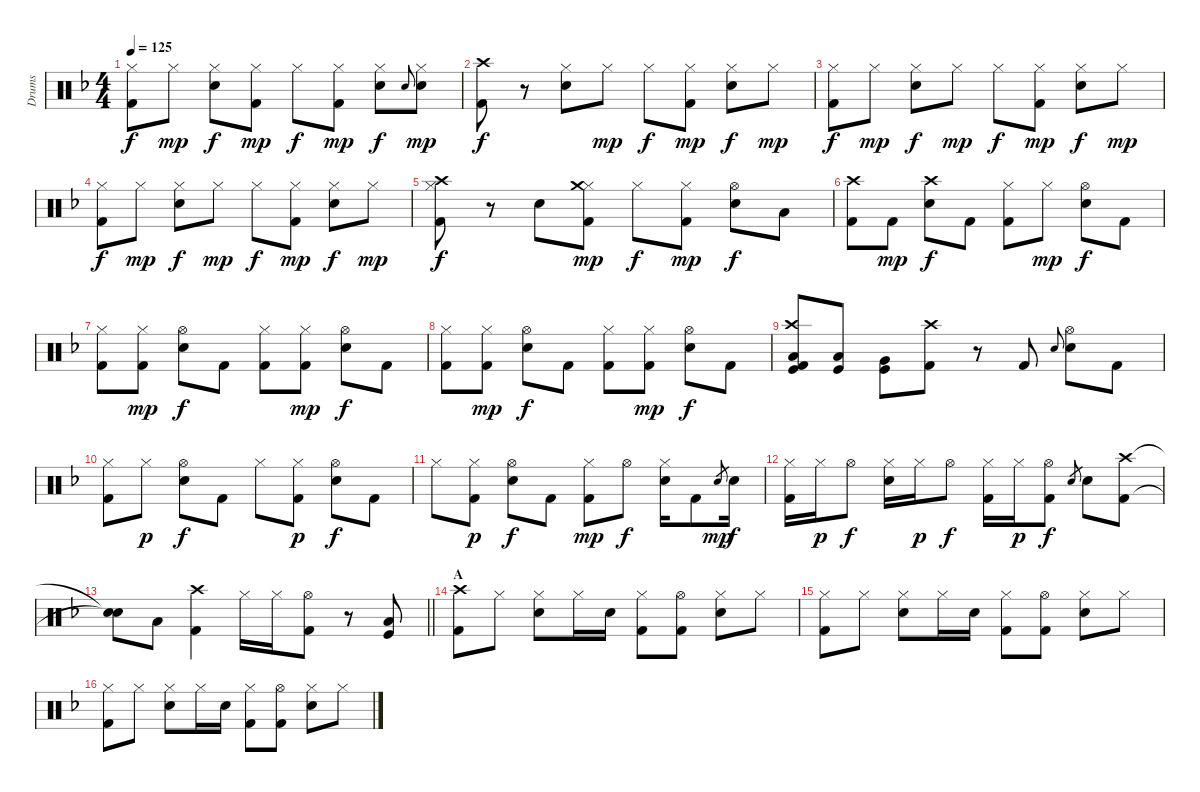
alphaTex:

\track ("Drums" "Drums") {instrument percussion}
\staff {score}
\articulation defaults
\ts (4 4)
\tempo 125
\clef neutral
\ks f
("Hi-Hat (closed)" "Kick (hit) 2").8{dy f} "Hi-Hat (closed)".8{dy mp} ("Hi-Hat (closed)" "Electric Snare (hit)").8{dy f} ("Hi-Hat (closed)" "Kick (hit) 2").8{dy mp} "Hi-Hat (closed)".8{dy f} ("Hi-Hat (closed)" "Kick (hit) 2").8{dy mp} ("Hi-Hat (closed)" "Electric Snare (hit)").8{dy f} "Electric Snare (hit)".8{gr onbeat} ("Hi-Hat (closed)" "Electric Snare (hit)").8{dy mp} |
("Crash high (hit)" "Kick (hit) 2").8{dy f} r.8 ("Hi-Hat (closed)" "Electric Snare (hit)").8 "Hi-Hat (closed)".8{dy mp} "Hi-Hat (closed)".8{dy f} ("Hi-Hat (closed)" "Kick (hit) 2").8{dy mp} ("Hi-Hat (closed)" "Electric Snare (hit)").8{dy f} "Hi-Hat (closed)".8{dy mp} |
("Hi-Hat (closed)" "Kick (hit) 2").8{dy f} "Hi-Hat (closed)".8{dy mp} ("Hi-Hat (closed)" "Electric Snare (hit)").8{dy f} "Hi-Hat (closed)".8{dy mp} "Hi-Hat (closed)".8{dy f} ("Hi-Hat (closed)" "Kick (hit) 2").8{dy mp} ("Hi-Hat (closed)" "Electric Snare (hit)").8{dy f} "Hi-Hat (closed)".8{dy mp} |
("Hi-Hat (closed)" "Kick (hit) 2").8{dy f} "Hi-Hat (closed)".8{dy mp} ("Hi-Hat (closed)" "Electric Snare (hit)").8{dy f} "Hi-Hat (closed)".8{dy mp} "Hi-Hat (closed)".8{dy f} ("Hi-Hat (closed)" "Kick (hit) 2").8{dy mp} ("Hi-Hat (closed)" "Electric Snare (hit)").8{dy f} "Hi-Hat (closed)".8{dy mp} |
("Hi-Hat (closed)" "Crash high (hit)" "Kick (hit) 2").8{dy f} r.8 "Electric Snare (hit)".8 ("Hi-Hat (closed)" "Crash medium (hit)" "Kick (hit) 2").8{dy mp} "Hi-Hat (closed)".8{dy f} ("Hi-Hat (closed)" "Kick (hit) 2").8{dy mp} ("Hi-Hat (open)" "Electric Snare (hit)").8{dy f} "Low Tom (hit)".8 |
("Crash high (hit)" "Kick (hit) 2").8 "Kick (hit) 2".8{dy mp} ("Crash high (hit)" "Electric Snare (hit)").8{dy f} "Kick (hit) 2".8 ("Hi-Hat (closed)" "Kick (hit) 2").8 "Hi-Hat (closed)".8{dy mp} ("Hi-Hat (open)" "Electric Snare (hit)").8{dy f} "Kick (hit) 2".8 |
("Hi-Hat (closed)" "Kick (hit) 2").8 ("Hi-Hat (closed)" "Kick (hit) 2").8{dy mp} ("Hi-Hat (open)" "Electric Snare (hit)").8{dy f} "Kick (hit) 2".8 ("Hi-Hat (closed)" "Kick (hit) 2").8 ("Hi-Hat (closed)" "Kick (hit) 2").8{dy mp} ("Hi-Hat (open)" "Electric Snare (hit)").8{dy f} "Kick (hit) 2".8 |
("Hi-Hat (closed)" "Kick (hit) 2").8 ("Hi-Hat (closed)" "Kick (hit) 2").8{dy mp} ("Hi-Hat (open)" "Electric Snare (hit)").8{dy f} "Kick (hit) 2".8 ("Hi-Hat (closed)" "Kick (hit) 2").8 ("Hi-Hat (closed)" "Kick (hit) 2").8{dy mp} ("Hi-Hat (open)" "Electric Snare (hit)").8{dy f} "Kick (hit) 2".8 |
("Crash high (hit)" "Low Tom (hit)" "Kick (hit)" "Kick (hit) 2").8 ("Low Tom (hit)" "Kick (hit)").8 ("Very Low Tom (hit)" "Kick (hit)").8 ("Crash high (hit)" "Kick (hit) 2").8 r.8 "Kick (hit) 2".8 "Electric Snare (hit)".8{gr onbeat} ("Hi-Hat (open)" "Electric Snare (hit)").8 "Kick (hit) 2".8 |
("Hi-Hat (closed)" "Kick (hit) 2").8 "Hi-Hat (closed)".8{dy p} ("Hi-Hat (open)" "Electric Snare (hit)").8{dy f} "Kick (hit) 2".8 "Hi-Hat (closed)".8 ("Hi-Hat (closed)" "Kick (hit) 2").8{dy p} ("Hi-Hat (open)" "Electric Snare (hit)").8{dy f} "Kick (hit) 2".8 |
"Hi-Hat (closed)".8 ("Hi-Hat (closed)" "Kick (hit) 2").8{dy p} ("Hi-Hat (open)" "Electric Snare (hit)").8{dy f} "Kick (hit) 2".8 ("Hi-Hat (closed)" "Kick (hit) 2").8{dy mp} "Hi-Hat (open)".8{dy f} ("Hi-Hat (closed)" "Electric Snare (hit)").16 "Kick (hit) 2".8 "Electric Snare (hit)".8{gr dy mp} "Electric Snare (hit)".16{dy f} |
("Hi-Hat (closed)" "Kick (hit) 2").16 "Hi-Hat (closed)".16{dy p} "Hi-Hat (open)".8{dy f} ("Hi-Hat (closed)" "Electric Snare (hit)").16 "Hi-Hat (closed)".16{dy p} "Hi-Hat (open)".8{dy f} ("Hi-Hat (closed)" "Kick (hit) 2").16 "Hi-Hat (closed)".16{dy p} ("Hi-Hat (open)" "Kick (hit) 2").8{dy f} "Electric Snare (hit)".8{gr} "Electric Snare (hit)".8 ("Crash high (hit)" "Kick (hit) 2").8 |
\barLineRight lightlight
("Snare (hit)"{t} "Snare (hit)"{t}).8 "Low Tom (hit)".8 ("Crash high (hit)" "Kick (hit) 2").4 "Hi-Hat (closed)".16 "Hi-Hat (closed)".16 ("Hi-Hat (open)" "Kick (hit) 2").8 r.8 ("Low Tom (hit)" "Kick (hit)").8 |
\section ("" "A")
("Crash high (hit)" "Kick (hit) 2").8 "Hi-Hat (closed)".8 ("Hi-Hat (closed)" "Electric Snare (hit)").8 "Hi-Hat (closed)".16 "Electric Snare (hit)".16 ("Hi-Hat (closed)" "Kick (hit) 2").8 ("Hi-Hat (open)" "Kick (hit) 2").8 ("Hi-Hat (closed)" "Electric Snare (hit)").8 "Hi-Hat (closed)".8 |
("Hi-Hat (closed)" "Kick (hit) 2").8 "Hi-Hat (closed)".8 ("Hi-Hat (closed)" "Electric Snare (hit)").8 "Hi-Hat (closed)".16 "Electric Snare (hit)".16 ("Hi-Hat (closed)" "Kick (hit) 2").8 ("Hi-Hat (open)" "Kick (hit) 2").8 ("Hi-Hat (closed)" "Electric Snare (hit)").8 "Hi-Hat (closed)".8 |
("Hi-Hat (closed)" "Kick (hit) 2").8 "Hi-Hat (closed)".8 ("Hi-Hat (closed)" "Electric Snare (hit)").8 "Hi-Hat (closed)".16 "Electric Snare (hit)".16 ("Hi-Hat (closed)" "Kick (hit) 2").8 ("Hi-Hat (open)" "Kick (hit) 2").8 ("Hi-Hat (closed)" "Electric Snare (hit)").8 "Hi-Hat (closed)".8
